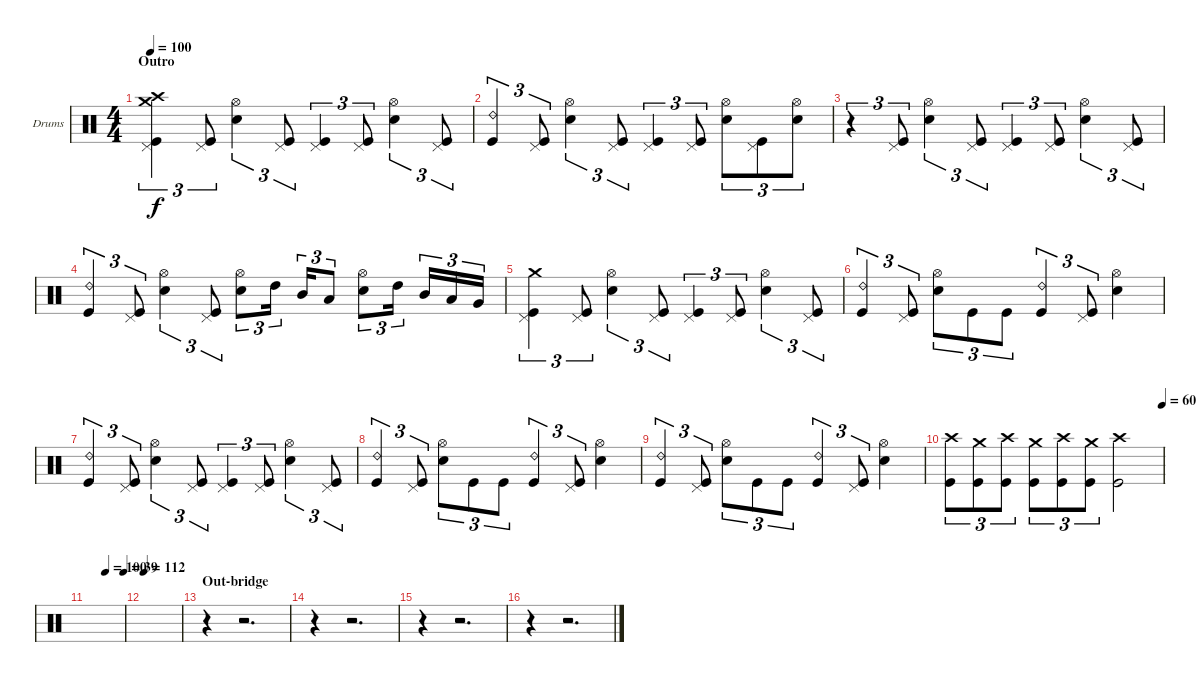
\bracketExtendMode groupsimilarinstruments
\firstSystemTrackNameOrientation horizontal
\otherSystemsTrackNameOrientation horizontal
\track ("drums (Anton Zulganov)" "Drums") {instrument percussion}
\staff {score}
\articulation defaults
\ts (4 4)
\section ("" "Outro")
\tempo 100
\clef neutral
\ks aminor
("Kick (hit)" "Pedal Hi-Hat (hit)" "Crash medium (hit)" "Crash high (hit)").4{tu (3 2) dy f} ("Kick (hit)" "Pedal Hi-Hat (hit)").8{tu (3 2)} ("Snare (hit) 2" "Hi-Hat (open)").4{tu (3 2)} ("Kick (hit)" "Pedal Hi-Hat (hit)").8{tu (3 2)} ("Kick (hit)" "Pedal Hi-Hat (hit)").4{tu (3 2)} ("Kick (hit)" "Pedal Hi-Hat (hit)").8{tu (3 2)} ("Snare (hit) 2" "Hi-Hat (open)").4{tu (3 2)} ("Kick (hit)" "Pedal Hi-Hat (hit)").8{tu (3 2)} |
("Kick (hit)" "Ride (bell) 2").4{tu (3 2)} ("Kick (hit)" "Pedal Hi-Hat (hit)").8{tu (3 2)} ("Snare (hit) 2" "Hi-Hat (open)").4{tu (3 2)} ("Kick (hit)" "Pedal Hi-Hat (hit)").8{tu (3 2)} ("Kick (hit)" "Pedal Hi-Hat (hit)").4{tu (3 2)} ("Kick (hit)" "Pedal Hi-Hat (hit)").8{tu (3 2)} ("Snare (hit) 2" "Hi-Hat (open)").8{tu (3 2)} ("Kick (hit)" "Pedal Hi-Hat (hit)").8{tu (3 2)} ("Snare (hit) 2" "Hi-Hat (open)").8{tu (3 2)} |
r.4{tu (3 2)} ("Kick (hit)" "Pedal Hi-Hat (hit)").8{tu (3 2)} ("Snare (hit) 2" "Hi-Hat (open)").4{tu (3 2)} ("Kick (hit)" "Pedal Hi-Hat (hit)").8{tu (3 2)} ("Kick (hit)" "Pedal Hi-Hat (hit)").4{tu (3 2)} ("Kick (hit)" "Pedal Hi-Hat (hit)").8{tu (3 2)} ("Snare (hit) 2" "Hi-Hat (open)").4{tu (3 2)} ("Kick (hit)" "Pedal Hi-Hat (hit)").8{tu (3 2)} |
("Kick (hit)" "Ride (bell) 2").4{tu (3 2)} ("Kick (hit)" "Pedal Hi-Hat (hit)").8{tu (3 2)} ("Snare (hit) 2" "Hi-Hat (open)").4{tu (3 2)} ("Kick (hit)" "Pedal Hi-Hat (hit)").8{tu (3 2)} ("Snare (hit) 2" "Hi-Hat (open)").8{tu (3 2)} "High Tom (hit)".16{tu (3 2)} "Mid Tom (hit)".16{tu (3 2)} "Low Tom (hit)".8{tu (3 2)} ("Snare (hit) 2" "Hi-Hat (open)").8{tu (3 2)} "High Tom (hit)".16{tu (3 2)} "Mid Tom (hit)".16{tu (3 2)} "Low Tom (hit)".16{tu (3 2)} "Very Low Tom (hit)".16{tu (3 2)} |
("Kick (hit)" "Pedal Hi-Hat (hit)" "Crash medium (hit)").4{tu (3 2)} ("Kick (hit)" "Pedal Hi-Hat (hit)").8{tu (3 2)} ("Snare (hit) 2" "Hi-Hat (open)").4{tu (3 2)} ("Kick (hit)" "Pedal Hi-Hat (hit)").8{tu (3 2)} ("Kick (hit)" "Pedal Hi-Hat (hit)").4{tu (3 2)} ("Kick (hit)" "Pedal Hi-Hat (hit)").8{tu (3 2)} ("Snare (hit) 2" "Hi-Hat (open)").4{tu (3 2)} ("Kick (hit)" "Pedal Hi-Hat (hit)").8{tu (3 2)} |
("Kick (hit)" "Ride (bell) 2").4{tu (3 2)} ("Kick (hit)" "Pedal Hi-Hat (hit)").8{tu (3 2)} ("Snare (hit) 2" "Hi-Hat (open)").8{tu (3 2)} "Kick (hit)".8{tu (3 2)} "Kick (hit)".8{tu (3 2)} ("Kick (hit)" "Ride (bell) 2").4{tu (3 2)} ("Kick (hit)" "Pedal Hi-Hat (hit)").8{tu (3 2)} ("Snare (hit) 2" "Hi-Hat (open)").4 |
("Kick (hit)" "Ride (bell) 2").4{tu (3 2)} ("Kick (hit)" "Pedal Hi-Hat (hit)").8{tu (3 2)} ("Snare (hit) 2" "Hi-Hat (open)").4{tu (3 2)} ("Kick (hit)" "Pedal Hi-Hat (hit)").8{tu (3 2)} ("Kick (hit)" "Pedal Hi-Hat (hit)").4{tu (3 2)} ("Kick (hit)" "Pedal Hi-Hat (hit)").8{tu (3 2)} ("Snare (hit) 2" "Hi-Hat (open)").4{tu (3 2)} ("Kick (hit)" "Pedal Hi-Hat (hit)").8{tu (3 2)} |
("Kick (hit)" "Ride (bell) 2").4{tu (3 2)} ("Kick (hit)" "Pedal Hi-Hat (hit)").8{tu (3 2)} ("Snare (hit) 2" "Hi-Hat (open)").8{tu (3 2)} "Kick (hit)".8{tu (3 2)} "Kick (hit)".8{tu (3 2)} ("Kick (hit)" "Ride (bell) 2").4{tu (3 2)} ("Kick (hit)" "Pedal Hi-Hat (hit)").8{tu (3 2)} ("Snare (hit) 2" "Hi-Hat (open)").4 |
("Kick (hit)" "Ride (bell) 2").4{tu (3 2)} ("Kick (hit)" "Pedal Hi-Hat (hit)").8{tu (3 2)} ("Snare (hit) 2" "Hi-Hat (open)").8{tu (3 2)} "Kick (hit)".8{tu (3 2)} "Kick (hit)".8{tu (3 2)} ("Kick (hit)" "Ride (bell) 2").4{tu (3 2)} ("Kick (hit)" "Pedal Hi-Hat (hit)").8{tu (3 2)} ("Snare (hit) 2" "Hi-Hat (open)").4 |
\tempo (60 1)
("Kick (hit)" "Crash high (hit)").8{tu (3 2)} ("Kick (hit)" "Crash medium (hit)").8{tu (3 2)} ("Kick (hit)" "Crash high (hit)").8{tu (3 2)} ("Kick (hit)" "Crash medium (hit)").8{tu (3 2)} ("Kick (hit)" "Crash high (hit)").8{tu (3 2)} ("Kick (hit)" "Crash medium (hit)").8{tu (3 2)} ("Kick (hit)" "Crash high (hit)").2 |
\tempo (100 0.5)
\tempo (39 1)
|
\tempo 112
|
\section ("" "Out-bridge")
r.4 r.2{d} |
r.4 r.2{d} |
r.4 r.2{d} |
r.4 r.2{d}
